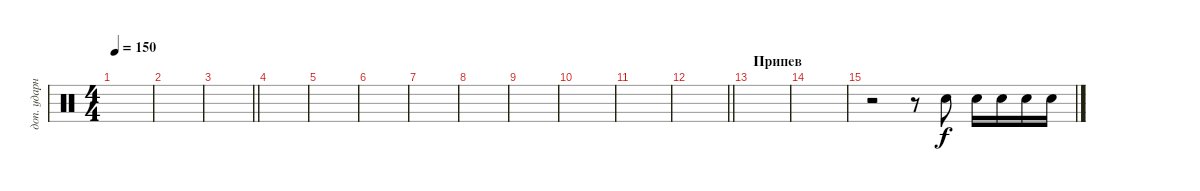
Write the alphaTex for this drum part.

\track ("доп. ударные" "доп. ударн") {instrument percussion}
\staff {score}
\articulation defaults
\ts (4 4)
\tempo 150
\clef neutral
\ks c
|
|
\barLineRight lightlight
|
\section ("" " ")
|
|
|
|
|
|
|
|
\barLineRight lightlight
|
\section ("" "Припев")
|
|
r.2 r.8 "Snare (hit) 2".8 "Snare (hit) 2".16 "Snare (hit) 2".16 "Snare (hit) 2".16 "Snare (hit) 2".16
